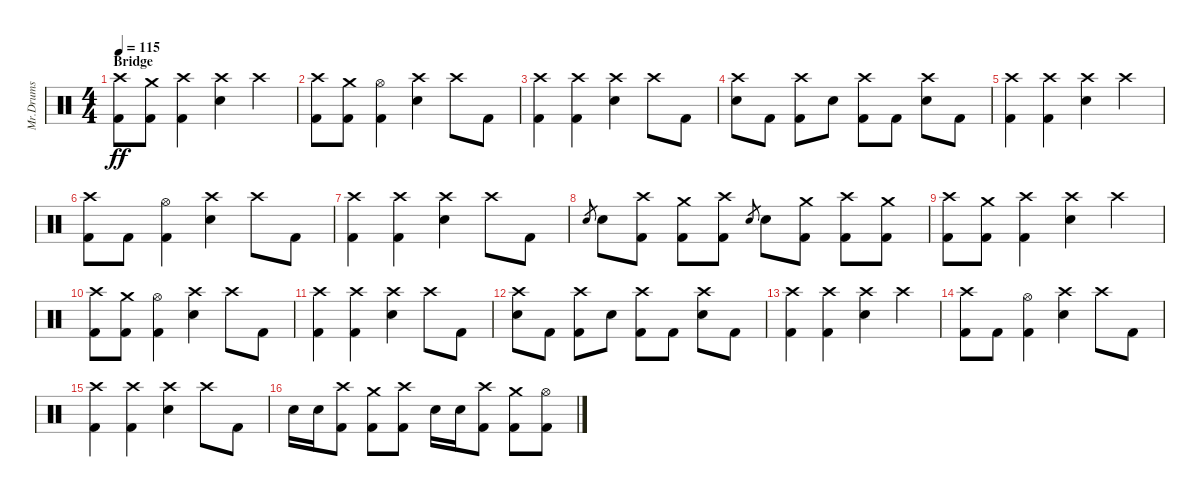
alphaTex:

\track ("Mr.Drums" "Mr.Drums") {instrument percussion}
\staff {score}
\articulation defaults
\ts (4 4)
\section ("" "Bridge")
\tempo 115
\clef neutral
\ks c
("Crash high (hit)" "Kick (hit) 2").8{dy ff} ("Crash medium (hit)" "Kick (hit) 2").8 ("Crash high (hit)" "Kick (hit) 2").4 ("Crash high (hit)" "Electric Snare (hit)").4 "Crash high (hit)".4 |
("Crash high (hit)" "Kick (hit) 2").8 ("Crash medium (hit)" "Kick (hit) 2").8 ("Hi-Hat (open)" "Kick (hit) 2").4 ("Crash high (hit)" "Electric Snare (hit)").4 "Crash high (hit)".8 "Kick (hit) 2".8 |
("Crash high (hit)" "Kick (hit) 2").4 ("Crash high (hit)" "Kick (hit) 2").4 ("Crash high (hit)" "Electric Snare (hit)").4 "Crash high (hit)".8 "Kick (hit) 2".8 |
("Crash high (hit)" "Electric Snare (hit)").8 "Kick (hit) 2".8 ("Crash high (hit)" "Kick (hit) 2").8 "Electric Snare (hit)".8 ("Crash high (hit)" "Kick (hit) 2").8 "Kick (hit) 2".8 ("Crash high (hit)" "Electric Snare (hit)").8 "Kick (hit) 2".8 |
("Crash high (hit)" "Kick (hit) 2").4 ("Crash high (hit)" "Kick (hit) 2").4 ("Crash high (hit)" "Electric Snare (hit)").4 "Crash high (hit)".4 |
("Crash high (hit)" "Kick (hit) 2").8 "Kick (hit) 2".8 ("Hi-Hat (open)" "Kick (hit) 2").4 ("Crash high (hit)" "Electric Snare (hit)").4 "Crash high (hit)".8 "Kick (hit) 2".8 |
("Crash high (hit)" "Kick (hit) 2").4 ("Crash high (hit)" "Kick (hit) 2").4 ("Crash high (hit)" "Electric Snare (hit)").4 "Crash high (hit)".8 "Kick (hit) 2".8 |
"Electric Snare (hit)".8{gr} "Electric Snare (hit)".8 ("Crash high (hit)" "Kick (hit) 2").8 ("Crash medium (hit)" "Kick (hit) 2").8 ("Crash high (hit)" "Kick (hit) 2").8 "Electric Snare (hit)".8{gr} "Electric Snare (hit)".8 ("Crash medium (hit)" "Kick (hit) 2").8 ("Crash high (hit)" "Kick (hit) 2").8 ("Crash medium (hit)" "Kick (hit) 2").8 |
("Crash high (hit)" "Kick (hit) 2").8 ("Crash medium (hit)" "Kick (hit) 2").8 ("Crash high (hit)" "Kick (hit) 2").4 ("Crash high (hit)" "Electric Snare (hit)").4 "Crash high (hit)".4 |
("Crash high (hit)" "Kick (hit) 2").8 ("Crash medium (hit)" "Kick (hit) 2").8 ("Hi-Hat (open)" "Kick (hit) 2").4 ("Crash high (hit)" "Electric Snare (hit)").4 "Crash high (hit)".8 "Kick (hit) 2".8 |
("Crash high (hit)" "Kick (hit) 2").4 ("Crash high (hit)" "Kick (hit) 2").4 ("Crash high (hit)" "Electric Snare (hit)").4 "Crash high (hit)".8 "Kick (hit) 2".8 |
("Crash high (hit)" "Electric Snare (hit)").8 "Kick (hit) 2".8 ("Crash high (hit)" "Kick (hit) 2").8 "Electric Snare (hit)".8 ("Crash high (hit)" "Kick (hit) 2").8 "Kick (hit) 2".8 ("Crash high (hit)" "Electric Snare (hit)").8 "Kick (hit) 2".8 |
("Crash high (hit)" "Kick (hit) 2").4 ("Crash high (hit)" "Kick (hit) 2").4 ("Crash high (hit)" "Electric Snare (hit)").4 "Crash high (hit)".4 |
("Crash high (hit)" "Kick (hit) 2").8 "Kick (hit) 2".8 ("Hi-Hat (open)" "Kick (hit) 2").4 ("Crash high (hit)" "Electric Snare (hit)").4 "Crash high (hit)".8 "Kick (hit) 2".8 |
("Crash high (hit)" "Kick (hit) 2").4 ("Crash high (hit)" "Kick (hit) 2").4 ("Crash high (hit)" "Electric Snare (hit)").4 "Crash high (hit)".8 "Kick (hit) 2".8 |
"Electric Snare (hit)".16 "Electric Snare (hit)".16 ("Crash high (hit)" "Kick (hit) 2").8 ("Crash medium (hit)" "Kick (hit) 2").8 ("Crash high (hit)" "Kick (hit) 2").8 "Electric Snare (hit)".16 "Electric Snare (hit)".16 ("Crash high (hit)" "Kick (hit) 2").8 ("Crash medium (hit)" "Kick (hit) 2").8 ("Hi-Hat (open)" "Kick (hit) 2").8
